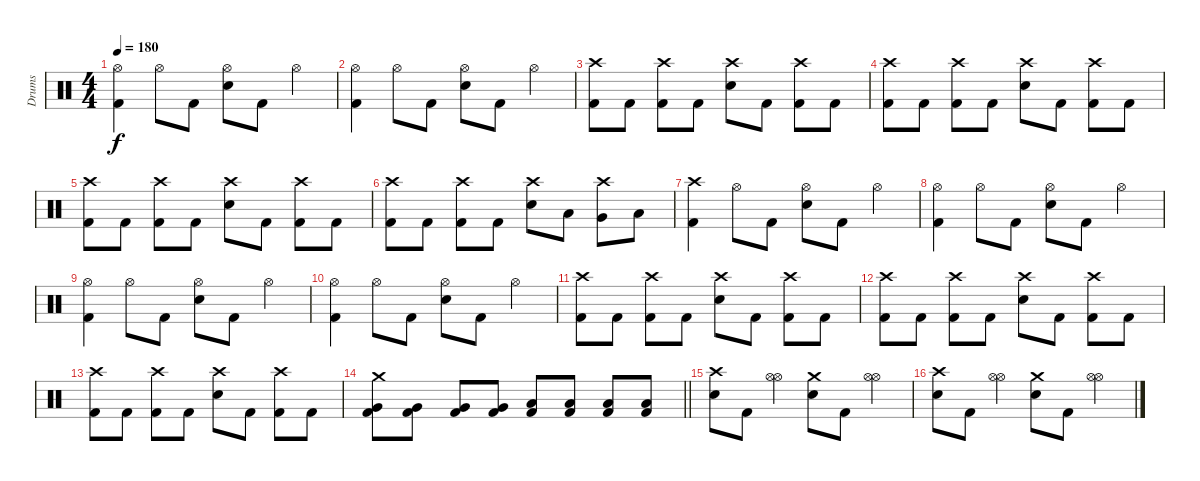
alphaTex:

\track ("Drums" "Drums") {instrument percussion}
\staff {score}
\articulation defaults
\ts (4 4)
\tempo 180
\clef neutral
\ks c
("Hi-Hat (open)" "Kick (hit) 2").4{dy f} "Hi-Hat (open)".8 "Kick (hit) 2".8 ("Electric Snare (hit)" "Hi-Hat (open)").8 "Kick (hit) 2".8 "Hi-Hat (open)".4 |
("Hi-Hat (open)" "Kick (hit) 2").4 "Hi-Hat (open)".8 "Kick (hit) 2".8 ("Electric Snare (hit)" "Hi-Hat (open)").8 "Kick (hit) 2".8 "Hi-Hat (open)".4 |
("Crash high (hit)" "Kick (hit) 2").8 "Kick (hit) 2".8 ("Crash high (hit)" "Kick (hit) 2").8 "Kick (hit) 2".8 ("Electric Snare (hit)" "Crash high (hit)").8 "Kick (hit) 2".8 ("Crash high (hit)" "Kick (hit) 2").8 "Kick (hit) 2".8 |
("Crash high (hit)" "Kick (hit) 2").8 "Kick (hit) 2".8 ("Crash high (hit)" "Kick (hit) 2").8 "Kick (hit) 2".8 ("Electric Snare (hit)" "Crash high (hit)").8 "Kick (hit) 2".8 ("Crash high (hit)" "Kick (hit) 2").8 "Kick (hit) 2".8 |
("Crash high (hit)" "Kick (hit) 2").8 "Kick (hit) 2".8 ("Crash high (hit)" "Kick (hit) 2").8 "Kick (hit) 2".8 ("Electric Snare (hit)" "Crash high (hit)").8 "Kick (hit) 2".8 ("Crash high (hit)" "Kick (hit) 2").8 "Kick (hit) 2".8 |
("Crash high (hit)" "Kick (hit) 2").8 "Kick (hit) 2".8 ("Crash high (hit)" "Kick (hit) 2").8 "Kick (hit) 2".8 ("Electric Snare (hit)" "Crash high (hit)").8 "Low Tom (hit)".8 ("Crash high (hit)" "Very Low Tom (hit)").8 "Low Floor Tom (hit)".8 |
("Crash high (hit)" "Kick (hit) 2").4 "Hi-Hat (open)".8 "Kick (hit) 2".8 ("Electric Snare (hit)" "Hi-Hat (open)").8 "Kick (hit) 2".8 "Hi-Hat (open)".4 |
("Hi-Hat (open)" "Kick (hit) 2").4 "Hi-Hat (open)".8 "Kick (hit) 2".8 ("Electric Snare (hit)" "Hi-Hat (open)").8 "Kick (hit) 2".8 "Hi-Hat (open)".4 |
("Hi-Hat (open)" "Kick (hit) 2").4 "Hi-Hat (open)".8 "Kick (hit) 2".8 ("Electric Snare (hit)" "Hi-Hat (open)").8 "Kick (hit) 2".8 "Hi-Hat (open)".4 |
("Hi-Hat (open)" "Kick (hit) 2").4 "Hi-Hat (open)".8 "Kick (hit) 2".8 ("Electric Snare (hit)" "Hi-Hat (open)").8 "Kick (hit) 2".8 "Hi-Hat (open)".4 |
("Crash high (hit)" "Kick (hit) 2").8 "Kick (hit) 2".8 ("Crash high (hit)" "Kick (hit) 2").8 "Kick (hit) 2".8 ("Electric Snare (hit)" "Crash high (hit)").8 "Kick (hit) 2".8 ("Crash high (hit)" "Kick (hit) 2").8 "Kick (hit) 2".8 |
("Crash high (hit)" "Kick (hit) 2").8 "Kick (hit) 2".8 ("Crash high (hit)" "Kick (hit) 2").8 "Kick (hit) 2".8 ("Electric Snare (hit)" "Crash high (hit)").8 "Kick (hit) 2".8 ("Crash high (hit)" "Kick (hit) 2").8 "Kick (hit) 2".8 |
("Crash high (hit)" "Kick (hit) 2").8 "Kick (hit) 2".8 ("Crash high (hit)" "Kick (hit) 2").8 "Kick (hit) 2".8 ("Electric Snare (hit)" "Crash high (hit)").8 "Kick (hit) 2".8 ("Crash high (hit)" "Kick (hit) 2").8 "Kick (hit) 2".8 |
\barLineRight lightlight
("Crash medium (hit)" "Very Low Tom (hit)" "Kick (hit) 2").8 ("Very Low Tom (hit)" "Kick (hit) 2").8 ("Very Low Tom (hit)" "Kick (hit) 2").8 ("Very Low Tom (hit)" "Kick (hit) 2").8 ("Low Floor Tom (hit)" "Kick (hit) 2").8 ("Low Floor Tom (hit)" "Kick (hit) 2").8 ("Low Floor Tom (hit)" "Kick (hit) 2").8 ("Low Floor Tom (hit)" "Kick (hit) 2").8 |
("Electric Snare (hit)" "Crash high (hit)").8 "Kick (hit) 2".8 ("Hi-Hat (open)" "Hi-Hat (open)").4 ("Electric Snare (hit)" "Crash medium (hit)").8 "Kick (hit) 2".8 ("Hi-Hat (open)" "Hi-Hat (open)").4 |
("Electric Snare (hit)" "Crash high (hit)").8 "Kick (hit) 2".8 ("Hi-Hat (open)" "Hi-Hat (open)").4 ("Electric Snare (hit)" "Crash medium (hit)").8 "Kick (hit) 2".8 ("Hi-Hat (open)" "Hi-Hat (open)").4
